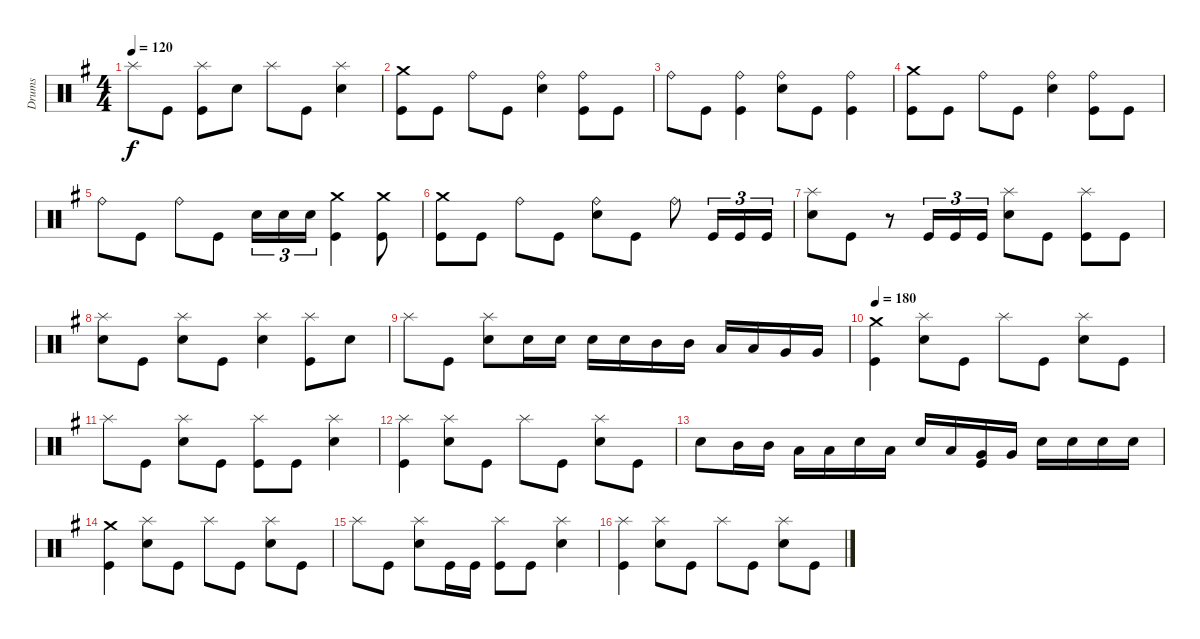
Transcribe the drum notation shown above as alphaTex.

\track ("Drums" "Drums") {instrument percussion}
\staff {score}
\articulation defaults
\ts (4 4)
\tempo 120
\clef neutral
\ks g "Splash (hit)".8{dy f} "Kick (hit)".8
("Kick (hit)" "Splash (hit)").8 "Electric Snare (hit)".8 "Splash (hit)".8 "Kick (hit)".8 ("Electric Snare (hit)" "Splash (hit)").4 |
("Kick (hit)" "Crash medium (hit)").8 "Kick (hit)".8 "Ride (bell)".8 "Kick (hit)".8 ("Electric Snare (hit)" "Ride (bell)").4 ("Kick (hit)" "Ride (bell)").8 "Kick (hit)".8 |
"Ride (bell)".8 "Kick (hit)".8 ("Kick (hit)" "Ride (bell)").4 ("Electric Snare (hit)" "Ride (bell)").8 "Kick (hit)".8 ("Kick (hit)" "Ride (bell)").4 |
("Kick (hit)" "Crash medium (hit)").8 "Kick (hit)".8 "Ride (bell)".8 "Kick (hit)".8 ("Electric Snare (hit)" "Ride (bell)").4 ("Kick (hit)" "Ride (bell)").8 "Kick (hit)".8 |
"Ride (bell)".8 "Kick (hit)".8 "Ride (bell)".8 "Kick (hit)".8 "Electric Snare (hit)".16{tu (3 2)} "Electric Snare (hit)".16{tu (3 2)} "Electric Snare (hit)".16{tu (3 2)} ("Kick (hit)" "Crash medium (hit)").4 ("Kick (hit)" "Crash medium (hit)").8 |
("Kick (hit)" "Crash medium (hit)").8 "Kick (hit)".8 "Ride (bell)".8 "Kick (hit)".8 ("Electric Snare (hit)" "Ride (bell)").8 "Kick (hit)".8 "Ride (bell)".8 "Kick (hit)".16{tu (3 2)} "Kick (hit)".16{tu (3 2)} "Kick (hit)".16{tu (3 2)} |
("Electric Snare (hit)" "Splash (hit)").8 "Kick (hit)".8 r.8 "Kick (hit)".16{tu (3 2)} "Kick (hit)".16{tu (3 2)} "Kick (hit)".16{tu (3 2)} ("Electric Snare (hit)" "Splash (hit)").8 "Kick (hit)".8 ("Kick (hit)" "Splash (hit)").8 "Kick (hit)".8 |
("Electric Snare (hit)" "Splash (hit)").8 "Kick (hit)".8 ("Electric Snare (hit)" "Splash (hit)").8 "Kick (hit)".8 ("Electric Snare (hit)" "Splash (hit)").4 ("Kick (hit)" "Splash (hit)").8 "Electric Snare (hit)".8 |
"Splash (hit)".8 "Kick (hit)".8 ("Electric Snare (hit)" "Splash (hit)").8 "Electric Snare (hit)".16 "Electric Snare (hit)".16 "Electric Snare (hit)".16 "Electric Snare (hit)".16 "Mid Tom (hit)".16 "Mid Tom (hit)".16 "Low Tom (hit)".16 "Low Tom (hit)".16 "Very Low Tom (hit)".16 "Very Low Tom (hit)".16 |
\tempo 180
("Kick (hit)" "Crash medium (hit)").4 ("Electric Snare (hit)" "Splash (hit)").8 "Kick (hit)".8 "Splash (hit)".8 "Kick (hit)".8 ("Electric Snare (hit)" "Splash (hit)").8 "Kick (hit)".8 |
"Splash (hit)".8 "Kick (hit)".8 ("Electric Snare (hit)" "Splash (hit)").8 "Kick (hit)".8 ("Kick (hit)" "Splash (hit)").8 "Kick (hit)".8 ("Electric Snare (hit)" "Splash (hit)").4 |
("Kick (hit)" "Splash (hit)").4 ("Electric Snare (hit)" "Splash (hit)").8 "Kick (hit)".8 "Splash (hit)".8 "Kick (hit)".8 ("Electric Snare (hit)" "Splash (hit)").8 "Kick (hit)".8 |
"Electric Snare (hit)".8 "Mid Tom (hit)".16 "Mid Tom (hit)".16 "Low Tom (hit)".16 "Low Tom (hit)".16 "Electric Snare (hit)".16 "Low Tom (hit)".16 "Electric Snare (hit)".16 "Low Tom (hit)".16 ("Kick (hit)" "Very Low Tom (hit)").16 "Very Low Tom (hit)".16 "Electric Snare (hit)".16 "Electric Snare (hit)".16 "Electric Snare (hit)".16 "Electric Snare (hit)".16 |
("Kick (hit)" "Crash medium (hit)").4 ("Electric Snare (hit)" "Splash (hit)").8 "Kick (hit)".8 "Splash (hit)".8 "Kick (hit)".8 ("Electric Snare (hit)" "Splash (hit)").8 "Kick (hit)".8 |
"Splash (hit)".8 "Kick (hit)".8 ("Electric Snare (hit)" "Splash (hit)").8 "Kick (hit)".16 "Kick (hit)".16 ("Kick (hit)" "Splash (hit)").8 "Kick (hit)".8 ("Electric Snare (hit)" "Splash (hit)").4 |
("Kick (hit)" "Splash (hit)").4 ("Electric Snare (hit)" "Splash (hit)").8 "Kick (hit)".8 "Splash (hit)".8 "Kick (hit)".8 ("Electric Snare (hit)" "Splash (hit)").8 "Kick (hit)".8
